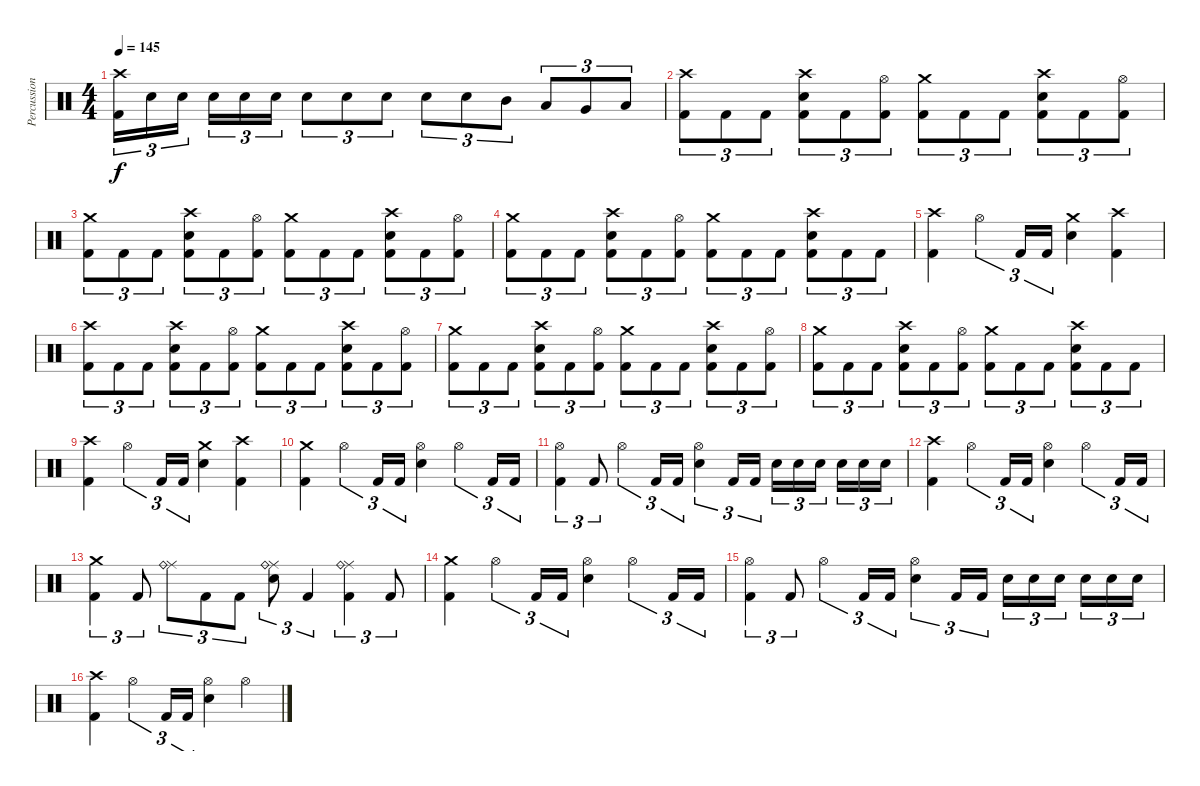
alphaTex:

\track ("Percussion" "Percussion") {instrument percussion}
\staff {score}
\articulation defaults
\ts (4 4)
\tempo 145
\clef neutral
\ks c
("Crash high (hit)" "Kick (hit) 2").16{tu (3 2) dy f} "Snare (hit) 2".16{tu (3 2)} "Snare (hit) 2".16{tu (3 2) beam splitsecondary} "Snare (hit) 2".16{tu (3 2)} "Snare (hit) 2".16{tu (3 2)} "Snare (hit) 2".16{tu (3 2)} "Snare (hit) 2".8{tu (3 2)} "Snare (hit) 2".8{tu (3 2)} "Snare (hit) 2".8{tu (3 2)} "Snare (hit) 2".8{tu (3 2)} "Snare (hit) 2".8{tu (3 2)} "Mid Tom (hit)".8{tu (3 2)} "Low Tom (hit)".8{tu (3 2)} "Very Low Tom (hit)".8{tu (3 2)} "Low Floor Tom (hit)".8{tu (3 2)} |
("Crash high (hit)" "Kick (hit) 2").8{tu (3 2)} "Kick (hit) 2".8{tu (3 2)} "Kick (hit) 2".8{tu (3 2)} ("Crash high (hit)" "Snare (hit) 2" "Kick (hit) 2").8{tu (3 2)} "Kick (hit) 2".8{tu (3 2)} ("Hi-Hat (open)" "Kick (hit) 2").8{tu (3 2)} ("Crash medium (hit)" "Kick (hit) 2").8{tu (3 2)} "Kick (hit) 2".8{tu (3 2)} "Kick (hit) 2".8{tu (3 2)} ("Crash high (hit)" "Snare (hit) 2" "Kick (hit) 2").8{tu (3 2)} "Kick (hit) 2".8{tu (3 2)} ("Hi-Hat (open)" "Kick (hit) 2").8{tu (3 2)} |
("Crash medium (hit)" "Kick (hit) 2").8{tu (3 2)} "Kick (hit) 2".8{tu (3 2)} "Kick (hit) 2".8{tu (3 2)} ("Crash high (hit)" "Snare (hit) 2" "Kick (hit) 2").8{tu (3 2)} "Kick (hit) 2".8{tu (3 2)} ("Hi-Hat (open)" "Kick (hit) 2").8{tu (3 2)} ("Crash medium (hit)" "Kick (hit) 2").8{tu (3 2)} "Kick (hit) 2".8{tu (3 2)} "Kick (hit) 2".8{tu (3 2)} ("Crash high (hit)" "Snare (hit) 2" "Kick (hit) 2").8{tu (3 2)} "Kick (hit) 2".8{tu (3 2)} ("Hi-Hat (open)" "Kick (hit) 2").8{tu (3 2)} |
("Crash medium (hit)" "Kick (hit) 2").8{tu (3 2)} "Kick (hit) 2".8{tu (3 2)} "Kick (hit) 2".8{tu (3 2)} ("Crash high (hit)" "Snare (hit) 2" "Kick (hit) 2").8{tu (3 2)} "Kick (hit) 2".8{tu (3 2)} ("Hi-Hat (open)" "Kick (hit) 2").8{tu (3 2)} ("Crash medium (hit)" "Kick (hit) 2").8{tu (3 2)} "Kick (hit) 2".8{tu (3 2)} "Kick (hit) 2".8{tu (3 2)} ("Crash high (hit)" "Snare (hit) 2" "Kick (hit) 2").8{tu (3 2)} "Kick (hit) 2".8{tu (3 2)} "Kick (hit) 2".8{tu (3 2)} |
("Crash high (hit)" "Kick (hit) 2").4 "Hi-Hat (open)".4{tu (3 2)} "Kick (hit) 2".16{tu (3 2)} "Kick (hit) 2".16{tu (3 2)} ("Crash medium (hit)" "Snare (hit) 2").4 ("Crash high (hit)" "Kick (hit) 2").4 |
("Crash high (hit)" "Kick (hit) 2").8{tu (3 2)} "Kick (hit) 2".8{tu (3 2)} "Kick (hit) 2".8{tu (3 2)} ("Crash high (hit)" "Snare (hit) 2" "Kick (hit) 2").8{tu (3 2)} "Kick (hit) 2".8{tu (3 2)} ("Hi-Hat (open)" "Kick (hit) 2").8{tu (3 2)} ("Crash medium (hit)" "Kick (hit) 2").8{tu (3 2)} "Kick (hit) 2".8{tu (3 2)} "Kick (hit) 2".8{tu (3 2)} ("Crash high (hit)" "Snare (hit) 2" "Kick (hit) 2").8{tu (3 2)} "Kick (hit) 2".8{tu (3 2)} ("Hi-Hat (open)" "Kick (hit) 2").8{tu (3 2)} |
("Crash medium (hit)" "Kick (hit) 2").8{tu (3 2)} "Kick (hit) 2".8{tu (3 2)} "Kick (hit) 2".8{tu (3 2)} ("Crash high (hit)" "Snare (hit) 2" "Kick (hit) 2").8{tu (3 2)} "Kick (hit) 2".8{tu (3 2)} ("Hi-Hat (open)" "Kick (hit) 2").8{tu (3 2)} ("Crash medium (hit)" "Kick (hit) 2").8{tu (3 2)} "Kick (hit) 2".8{tu (3 2)} "Kick (hit) 2".8{tu (3 2)} ("Crash high (hit)" "Snare (hit) 2" "Kick (hit) 2").8{tu (3 2)} "Kick (hit) 2".8{tu (3 2)} ("Hi-Hat (open)" "Kick (hit) 2").8{tu (3 2)} |
("Crash medium (hit)" "Kick (hit) 2").8{tu (3 2)} "Kick (hit) 2".8{tu (3 2)} "Kick (hit) 2".8{tu (3 2)} ("Crash high (hit)" "Snare (hit) 2" "Kick (hit) 2").8{tu (3 2)} "Kick (hit) 2".8{tu (3 2)} ("Hi-Hat (open)" "Kick (hit) 2").8{tu (3 2)} ("Crash medium (hit)" "Kick (hit) 2").8{tu (3 2)} "Kick (hit) 2".8{tu (3 2)} "Kick (hit) 2".8{tu (3 2)} ("Crash high (hit)" "Snare (hit) 2" "Kick (hit) 2").8{tu (3 2)} "Kick (hit) 2".8{tu (3 2)} "Kick (hit) 2".8{tu (3 2)} |
("Crash high (hit)" "Kick (hit) 2").4 "Hi-Hat (open)".4{tu (3 2)} "Kick (hit) 2".16{tu (3 2)} "Kick (hit) 2".16{tu (3 2)} ("Crash medium (hit)" "Snare (hit) 2").4 ("Crash high (hit)" "Kick (hit) 2").4 |
("Crash medium (hit)" "Kick (hit) 2").4 "Hi-Hat (open)".4{tu (3 2)} "Kick (hit) 2".16{tu (3 2)} "Kick (hit) 2".16{tu (3 2)} ("Hi-Hat (open)" "Snare (hit) 2").4 "Hi-Hat (open)".4{tu (3 2)} "Kick (hit) 2".16{tu (3 2)} "Kick (hit) 2".16{tu (3 2)} |
("Hi-Hat (open)" "Kick (hit) 2").4{tu (3 2)} "Kick (hit) 2".8{tu (3 2)} "Hi-Hat (open)".4{tu (3 2)} "Kick (hit) 2".16{tu (3 2)} "Kick (hit) 2".16{tu (3 2)} ("Hi-Hat (open)" "Snare (hit) 2").4{tu (3 2)} "Kick (hit) 2".16{tu (3 2)} "Kick (hit) 2".16{tu (3 2)} "Snare (hit) 2".16{tu (3 2)} "Snare (hit) 2".16{tu (3 2)} "Snare (hit) 2".16{tu (3 2) beam splitsecondary} "Snare (hit) 2".16{tu (3 2)} "Snare (hit) 2".16{tu (3 2)} "Snare (hit) 2".16{tu (3 2)} |
("Crash high (hit)" "Kick (hit) 2").4 "Hi-Hat (open)".4{tu (3 2)} "Kick (hit) 2".16{tu (3 2)} "Kick (hit) 2".16{tu (3 2)} ("Hi-Hat (open)" "Snare (hit) 2").4 "Hi-Hat (open)".4{tu (3 2)} "Kick (hit) 2".16{tu (3 2)} "Kick (hit) 2".16{tu (3 2)} |
("Crash medium (hit)" "Kick (hit) 2").4{tu (3 2)} "Kick (hit) 2".8{tu (3 2)} ("Ride (middle)" "Ride (bell)").8{tu (3 2)} "Kick (hit) 2".8{tu (3 2)} "Kick (hit) 2".8{tu (3 2)} ("Ride (middle)" "Ride (bell)" "Snare (hit) 2").8{tu (3 2)} "Kick (hit) 2".4{tu (3 2)} ("Ride (middle)" "Ride (bell)" "Kick (hit) 2").4{tu (3 2)} "Kick (hit) 2".8{tu (3 2)} |
("Crash medium (hit)" "Kick (hit) 2").4 "Hi-Hat (open)".4{tu (3 2)} "Kick (hit) 2".16{tu (3 2)} "Kick (hit) 2".16{tu (3 2)} ("Hi-Hat (open)" "Snare (hit) 2").4 "Hi-Hat (open)".4{tu (3 2)} "Kick (hit) 2".16{tu (3 2)} "Kick (hit) 2".16{tu (3 2)} |
("Hi-Hat (open)" "Kick (hit) 2").4{tu (3 2)} "Kick (hit) 2".8{tu (3 2)} "Hi-Hat (open)".4{tu (3 2)} "Kick (hit) 2".16{tu (3 2)} "Kick (hit) 2".16{tu (3 2)} ("Hi-Hat (open)" "Snare (hit) 2").4{tu (3 2)} "Kick (hit) 2".16{tu (3 2)} "Kick (hit) 2".16{tu (3 2)} "Snare (hit) 2".16{tu (3 2)} "Snare (hit) 2".16{tu (3 2)} "Snare (hit) 2".16{tu (3 2) beam splitsecondary} "Snare (hit) 2".16{tu (3 2)} "Snare (hit) 2".16{tu (3 2)} "Snare (hit) 2".16{tu (3 2)} |
("Crash high (hit)" "Kick (hit) 2").4 "Hi-Hat (open)".4{tu (3 2)} "Kick (hit) 2".16{tu (3 2)} "Kick (hit) 2".16{tu (3 2)} ("Hi-Hat (open)" "Snare (hit) 2").4 "Hi-Hat (open)".4
